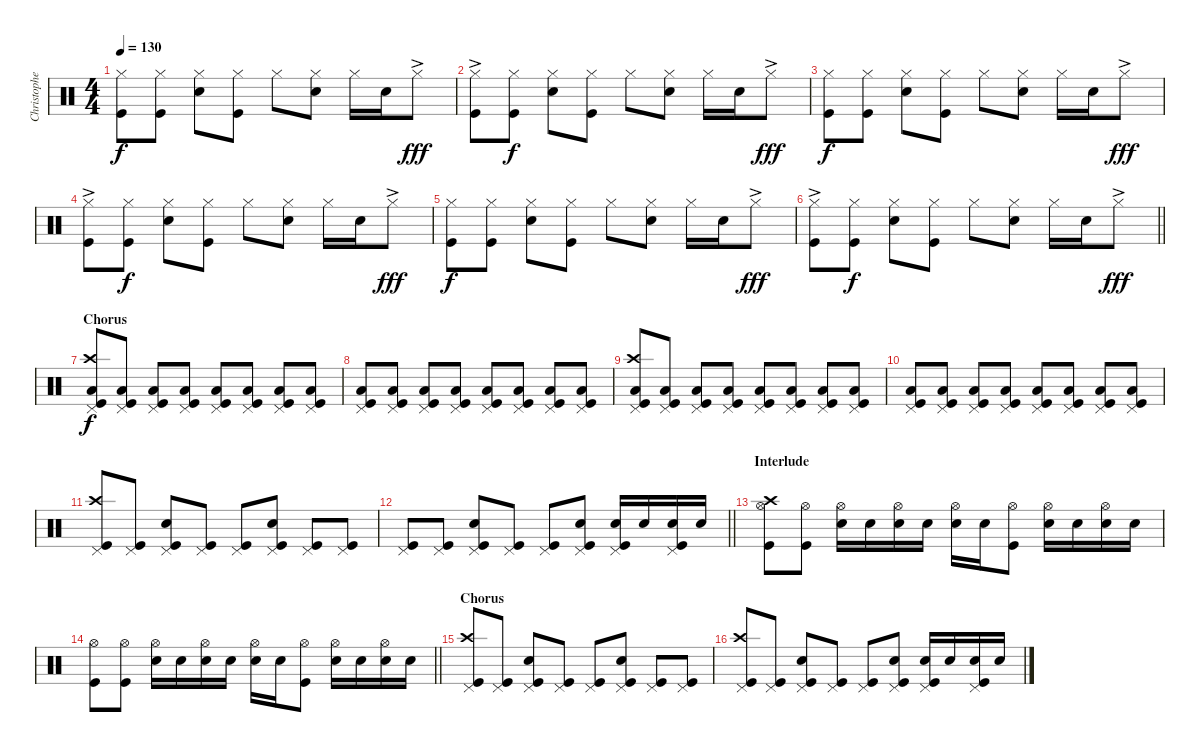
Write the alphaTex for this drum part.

\track ("Christopher - Drums" "Christophe") {instrument percussion}
\staff {score}
\articulation defaults
\ts (4 4)
\tempo 130
\clef neutral
\ks c
("Hi-Hat (closed)" "Kick (hit)").8{dy f} ("Hi-Hat (closed)" "Kick (hit)").8 ("Hi-Hat (closed)" "Snare (hit) 2").8 ("Hi-Hat (closed)" "Kick (hit)").8 "Hi-Hat (closed)".8 ("Hi-Hat (closed)" "Snare (hit) 2").8 "Hi-Hat (closed)".16 "Snare (hit) 2".16 "Hi-Hat (closed)"{ac}.8{dy fff} |
("Hi-Hat (closed)"{ac} "Kick (hit)").8 ("Hi-Hat (closed)" "Kick (hit)").8{dy f} ("Hi-Hat (closed)" "Snare (hit) 2").8 ("Hi-Hat (closed)" "Kick (hit)").8 "Hi-Hat (closed)".8 ("Hi-Hat (closed)" "Snare (hit) 2").8 "Hi-Hat (closed)".16 "Snare (hit) 2".16 "Hi-Hat (closed)"{ac}.8{dy fff} |
("Hi-Hat (closed)" "Kick (hit)").8{dy f} ("Hi-Hat (closed)" "Kick (hit)").8 ("Hi-Hat (closed)" "Snare (hit) 2").8 ("Hi-Hat (closed)" "Kick (hit)").8 "Hi-Hat (closed)".8 ("Hi-Hat (closed)" "Snare (hit) 2").8 "Hi-Hat (closed)".16 "Snare (hit) 2".16 "Hi-Hat (closed)"{ac}.8{dy fff} |
("Hi-Hat (closed)"{ac} "Kick (hit)").8 ("Hi-Hat (closed)" "Kick (hit)").8{dy f} ("Hi-Hat (closed)" "Snare (hit) 2").8 ("Hi-Hat (closed)" "Kick (hit)").8 "Hi-Hat (closed)".8 ("Hi-Hat (closed)" "Snare (hit) 2").8 "Hi-Hat (closed)".16 "Snare (hit) 2".16 "Hi-Hat (closed)"{ac}.8{dy fff} |
("Hi-Hat (closed)" "Kick (hit)").8{dy f} ("Hi-Hat (closed)" "Kick (hit)").8 ("Hi-Hat (closed)" "Snare (hit) 2").8 ("Hi-Hat (closed)" "Kick (hit)").8 "Hi-Hat (closed)".8 ("Hi-Hat (closed)" "Snare (hit) 2").8 "Hi-Hat (closed)".16 "Snare (hit) 2".16 "Hi-Hat (closed)"{ac}.8{dy fff} |
\barLineRight lightlight
("Hi-Hat (closed)"{ac} "Kick (hit)").8 ("Hi-Hat (closed)" "Kick (hit)").8{dy f} ("Hi-Hat (closed)" "Snare (hit) 2").8 ("Hi-Hat (closed)" "Kick (hit)").8 "Hi-Hat (closed)".8 ("Hi-Hat (closed)" "Snare (hit) 2").8 "Hi-Hat (closed)".16 "Snare (hit) 2".16 "Hi-Hat (closed)"{ac}.8{dy fff} |
\section ("" "Chorus")
("Crash high (hit)" "Pedal Hi-Hat (hit)" "Low Floor Tom (hit)" "Kick (hit)").8{dy f} ("Pedal Hi-Hat (hit)" "Low Floor Tom (hit)" "Kick (hit)").8 ("Pedal Hi-Hat (hit)" "Low Floor Tom (hit)" "Kick (hit)").8 ("Pedal Hi-Hat (hit)" "Low Floor Tom (hit)" "Kick (hit)").8 ("Pedal Hi-Hat (hit)" "Low Floor Tom (hit)" "Kick (hit)").8 ("Pedal Hi-Hat (hit)" "Low Floor Tom (hit)" "Kick (hit)").8 ("Pedal Hi-Hat (hit)" "Low Floor Tom (hit)" "Kick (hit)").8 ("Pedal Hi-Hat (hit)" "Low Floor Tom (hit)" "Kick (hit)").8 |
("Pedal Hi-Hat (hit)" "Low Floor Tom (hit)" "Kick (hit)").8 ("Pedal Hi-Hat (hit)" "Low Floor Tom (hit)" "Kick (hit)").8 ("Pedal Hi-Hat (hit)" "Low Floor Tom (hit)" "Kick (hit)").8 ("Pedal Hi-Hat (hit)" "Low Floor Tom (hit)" "Kick (hit)").8 ("Pedal Hi-Hat (hit)" "Low Floor Tom (hit)" "Kick (hit)").8 ("Pedal Hi-Hat (hit)" "Low Floor Tom (hit)" "Kick (hit)").8 ("Pedal Hi-Hat (hit)" "Low Floor Tom (hit)" "Kick (hit)").8 ("Pedal Hi-Hat (hit)" "Low Floor Tom (hit)" "Kick (hit)").8 |
("Crash high (hit)" "Pedal Hi-Hat (hit)" "Low Floor Tom (hit)" "Kick (hit)").8 ("Pedal Hi-Hat (hit)" "Low Floor Tom (hit)" "Kick (hit)").8 ("Pedal Hi-Hat (hit)" "Low Floor Tom (hit)" "Kick (hit)").8 ("Pedal Hi-Hat (hit)" "Low Floor Tom (hit)" "Kick (hit)").8 ("Pedal Hi-Hat (hit)" "Low Floor Tom (hit)" "Kick (hit)").8 ("Pedal Hi-Hat (hit)" "Low Floor Tom (hit)" "Kick (hit)").8 ("Pedal Hi-Hat (hit)" "Low Floor Tom (hit)" "Kick (hit)").8 ("Pedal Hi-Hat (hit)" "Low Floor Tom (hit)" "Kick (hit)").8 |
("Pedal Hi-Hat (hit)" "Low Floor Tom (hit)" "Kick (hit)").8 ("Pedal Hi-Hat (hit)" "Low Floor Tom (hit)" "Kick (hit)").8 ("Pedal Hi-Hat (hit)" "Low Floor Tom (hit)" "Kick (hit)").8 ("Pedal Hi-Hat (hit)" "Low Floor Tom (hit)" "Kick (hit)").8 ("Pedal Hi-Hat (hit)" "Low Floor Tom (hit)" "Kick (hit)").8 ("Pedal Hi-Hat (hit)" "Low Floor Tom (hit)" "Kick (hit)").8 ("Pedal Hi-Hat (hit)" "Low Floor Tom (hit)" "Kick (hit)").8 ("Pedal Hi-Hat (hit)" "Low Floor Tom (hit)" "Kick (hit)").8 |
("Crash high (hit)" "Pedal Hi-Hat (hit)" "Kick (hit)").8 ("Pedal Hi-Hat (hit)" "Kick (hit)").8 ("Pedal Hi-Hat (hit)" "Snare (hit) 2" "Kick (hit)").8 ("Pedal Hi-Hat (hit)" "Kick (hit)").8 ("Pedal Hi-Hat (hit)" "Kick (hit)").8 ("Pedal Hi-Hat (hit)" "Snare (hit) 2" "Kick (hit)").8 ("Pedal Hi-Hat (hit)" "Kick (hit)").8 ("Pedal Hi-Hat (hit)" "Kick (hit)").8 |
\barLineRight lightlight
("Pedal Hi-Hat (hit)" "Kick (hit)").8 ("Pedal Hi-Hat (hit)" "Kick (hit)").8 ("Pedal Hi-Hat (hit)" "Snare (hit) 2" "Kick (hit)").8 ("Pedal Hi-Hat (hit)" "Kick (hit)").8 ("Pedal Hi-Hat (hit)" "Kick (hit)").8 ("Pedal Hi-Hat (hit)" "Snare (hit) 2" "Kick (hit)").8 ("Pedal Hi-Hat (hit)" "Snare (hit) 2" "Kick (hit)").16 "Snare (hit) 2".16 ("Pedal Hi-Hat (hit)" "Snare (hit) 2" "Kick (hit)").16 "Snare (hit) 2".16 |
\section ("" "Interlude")
("Crash high (hit)" "Hi-Hat (open)" "Kick (hit)").8 ("Hi-Hat (open)" "Kick (hit)").8 ("Hi-Hat (open)" "Snare (hit) 2").16 "Snare (hit) 2".16 ("Hi-Hat (open)" "Snare (hit) 2").16 "Snare (hit) 2".16 ("Hi-Hat (open)" "Snare (hit) 2").16 "Snare (hit) 2".16 ("Hi-Hat (open)" "Kick (hit)").8 ("Hi-Hat (open)" "Snare (hit) 2").16 "Snare (hit) 2".16 ("Hi-Hat (open)" "Snare (hit) 2").16 "Snare (hit) 2".16 |
\barLineRight lightlight
("Hi-Hat (open)" "Kick (hit)").8 ("Hi-Hat (open)" "Kick (hit)").8 ("Hi-Hat (open)" "Snare (hit) 2").16 "Snare (hit) 2".16 ("Hi-Hat (open)" "Snare (hit) 2").16 "Snare (hit) 2".16 ("Hi-Hat (open)" "Snare (hit) 2").16 "Snare (hit) 2".16 ("Hi-Hat (open)" "Kick (hit)").8 ("Hi-Hat (open)" "Snare (hit) 2").16 "Snare (hit) 2".16 ("Hi-Hat (open)" "Snare (hit) 2").16 "Snare (hit) 2".16 |
\section ("" "Chorus")
("Crash high (hit)" "Pedal Hi-Hat (hit)" "Kick (hit)").8 ("Pedal Hi-Hat (hit)" "Kick (hit)").8 ("Pedal Hi-Hat (hit)" "Snare (hit) 2" "Kick (hit)").8 ("Pedal Hi-Hat (hit)" "Kick (hit)").8 ("Pedal Hi-Hat (hit)" "Kick (hit)").8 ("Pedal Hi-Hat (hit)" "Snare (hit) 2" "Kick (hit)").8 ("Pedal Hi-Hat (hit)" "Kick (hit)").8 ("Pedal Hi-Hat (hit)" "Kick (hit)").8 |
("Crash high (hit)" "Pedal Hi-Hat (hit)" "Kick (hit)").8 ("Pedal Hi-Hat (hit)" "Kick (hit)").8 ("Pedal Hi-Hat (hit)" "Snare (hit) 2" "Kick (hit)").8 ("Pedal Hi-Hat (hit)" "Kick (hit)").8 ("Pedal Hi-Hat (hit)" "Kick (hit)").8 ("Pedal Hi-Hat (hit)" "Snare (hit) 2" "Kick (hit)").8 ("Pedal Hi-Hat (hit)" "Snare (hit) 2" "Kick (hit)").16 "Snare (hit) 2".16 ("Pedal Hi-Hat (hit)" "Snare (hit) 2" "Kick (hit)").16 "Snare (hit) 2".16
